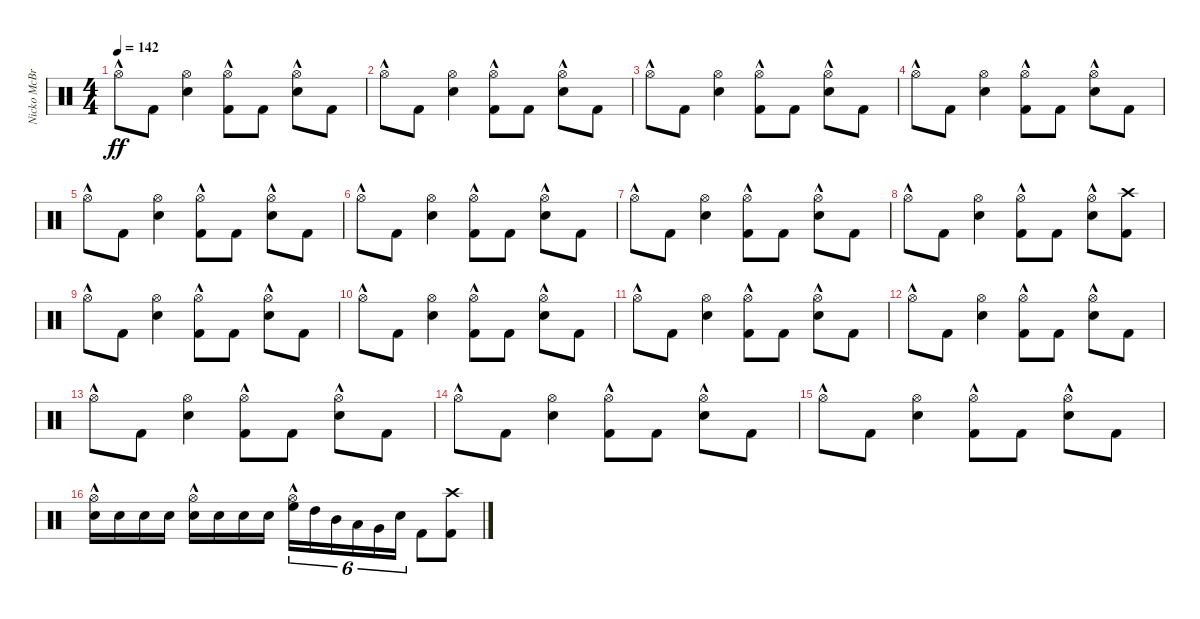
\track ("Nicko McBrain" "Nicko McBr") {instrument percussion}
\staff {score}
\articulation defaults
\ts (4 4)
\tempo 142
\clef neutral
\ks c "Hi-Hat (open)"{hac}.8{dy ff} "Kick (hit) 2".8
("Snare (hit) 2" "Hi-Hat (open)").4 ("Kick (hit) 2" "Hi-Hat (open)"{hac}).8 "Kick (hit) 2".8 ("Snare (hit) 2" "Hi-Hat (open)"{hac}).8 "Kick (hit) 2".8 |
"Hi-Hat (open)"{hac}.8 "Kick (hit) 2".8 ("Snare (hit) 2" "Hi-Hat (open)").4 ("Kick (hit) 2" "Hi-Hat (open)"{hac}).8 "Kick (hit) 2".8 ("Snare (hit) 2" "Hi-Hat (open)"{hac}).8 "Kick (hit) 2".8 |
"Hi-Hat (open)"{hac}.8 "Kick (hit) 2".8 ("Snare (hit) 2" "Hi-Hat (open)").4 ("Kick (hit) 2" "Hi-Hat (open)"{hac}).8 "Kick (hit) 2".8 ("Snare (hit) 2" "Hi-Hat (open)"{hac}).8 "Kick (hit) 2".8 |
"Hi-Hat (open)"{hac}.8 "Kick (hit) 2".8 ("Snare (hit) 2" "Hi-Hat (open)").4 ("Kick (hit) 2" "Hi-Hat (open)"{hac}).8 "Kick (hit) 2".8 ("Snare (hit) 2" "Hi-Hat (open)"{hac}).8 "Kick (hit) 2".8 |
"Hi-Hat (open)"{hac}.8 "Kick (hit) 2".8 ("Snare (hit) 2" "Hi-Hat (open)").4 ("Kick (hit) 2" "Hi-Hat (open)"{hac}).8 "Kick (hit) 2".8 ("Snare (hit) 2" "Hi-Hat (open)"{hac}).8 "Kick (hit) 2".8 |
"Hi-Hat (open)"{hac}.8 "Kick (hit) 2".8 ("Snare (hit) 2" "Hi-Hat (open)").4 ("Kick (hit) 2" "Hi-Hat (open)"{hac}).8 "Kick (hit) 2".8 ("Snare (hit) 2" "Hi-Hat (open)"{hac}).8 "Kick (hit) 2".8 |
"Hi-Hat (open)"{hac}.8 "Kick (hit) 2".8 ("Snare (hit) 2" "Hi-Hat (open)").4 ("Kick (hit) 2" "Hi-Hat (open)"{hac}).8 "Kick (hit) 2".8 ("Snare (hit) 2" "Hi-Hat (open)"{hac}).8 "Kick (hit) 2".8 |
"Hi-Hat (open)"{hac}.8 "Kick (hit) 2".8 ("Snare (hit) 2" "Hi-Hat (open)").4 ("Kick (hit) 2" "Hi-Hat (open)"{hac}).8 "Kick (hit) 2".8 ("Snare (hit) 2" "Hi-Hat (open)"{hac}).8 ("Kick (hit) 2" "Crash high (hit)").8 |
"Hi-Hat (open)"{hac}.8 "Kick (hit) 2".8 ("Snare (hit) 2" "Hi-Hat (open)").4 ("Kick (hit) 2" "Hi-Hat (open)"{hac}).8 "Kick (hit) 2".8 ("Snare (hit) 2" "Hi-Hat (open)"{hac}).8 "Kick (hit) 2".8 |
"Hi-Hat (open)"{hac}.8 "Kick (hit) 2".8 ("Snare (hit) 2" "Hi-Hat (open)").4 ("Kick (hit) 2" "Hi-Hat (open)"{hac}).8 "Kick (hit) 2".8 ("Snare (hit) 2" "Hi-Hat (open)"{hac}).8 "Kick (hit) 2".8 |
"Hi-Hat (open)"{hac}.8 "Kick (hit) 2".8 ("Snare (hit) 2" "Hi-Hat (open)").4 ("Kick (hit) 2" "Hi-Hat (open)"{hac}).8 "Kick (hit) 2".8 ("Snare (hit) 2" "Hi-Hat (open)"{hac}).8 "Kick (hit) 2".8 |
"Hi-Hat (open)"{hac}.8 "Kick (hit) 2".8 ("Snare (hit) 2" "Hi-Hat (open)").4 ("Kick (hit) 2" "Hi-Hat (open)"{hac}).8 "Kick (hit) 2".8 ("Snare (hit) 2" "Hi-Hat (open)"{hac}).8 "Kick (hit) 2".8 |
"Hi-Hat (open)"{hac}.8 "Kick (hit) 2".8 ("Snare (hit) 2" "Hi-Hat (open)").4 ("Kick (hit) 2" "Hi-Hat (open)"{hac}).8 "Kick (hit) 2".8 ("Snare (hit) 2" "Hi-Hat (open)"{hac}).8 "Kick (hit) 2".8 |
"Hi-Hat (open)"{hac}.8 "Kick (hit) 2".8 ("Snare (hit) 2" "Hi-Hat (open)").4 ("Kick (hit) 2" "Hi-Hat (open)"{hac}).8 "Kick (hit) 2".8 ("Snare (hit) 2" "Hi-Hat (open)"{hac}).8 "Kick (hit) 2".8 |
"Hi-Hat (open)"{hac}.8 "Kick (hit) 2".8 ("Snare (hit) 2" "Hi-Hat (open)").4 ("Kick (hit) 2" "Hi-Hat (open)"{hac}).8 "Kick (hit) 2".8 ("Snare (hit) 2" "Hi-Hat (open)"{hac}).8 "Kick (hit) 2".8 |
("Snare (hit) 2" "Hi-Hat (open)"{hac}).16 "Snare (hit) 2".16 "Snare (hit) 2".16 "Snare (hit) 2".16 ("Snare (hit) 2" "Hi-Hat (open)"{hac}).16 "Snare (hit) 2".16 "Snare (hit) 2".16 "Snare (hit) 2".16 ("Hi-Hat (open)"{hac} "High Floor Tom (hit)").16{tu (6 4)} "High Tom (hit)".16{tu (6 4)} "Mid Tom (hit)".16{tu (6 4)} "Low Tom (hit)".16{tu (6 4)} "Very Low Tom (hit)".16{tu (6 4)} "Electric Snare (hit)".16{tu (6 4)} "Kick (hit) 2".8 ("Kick (hit) 2" "Crash high (hit)").8
